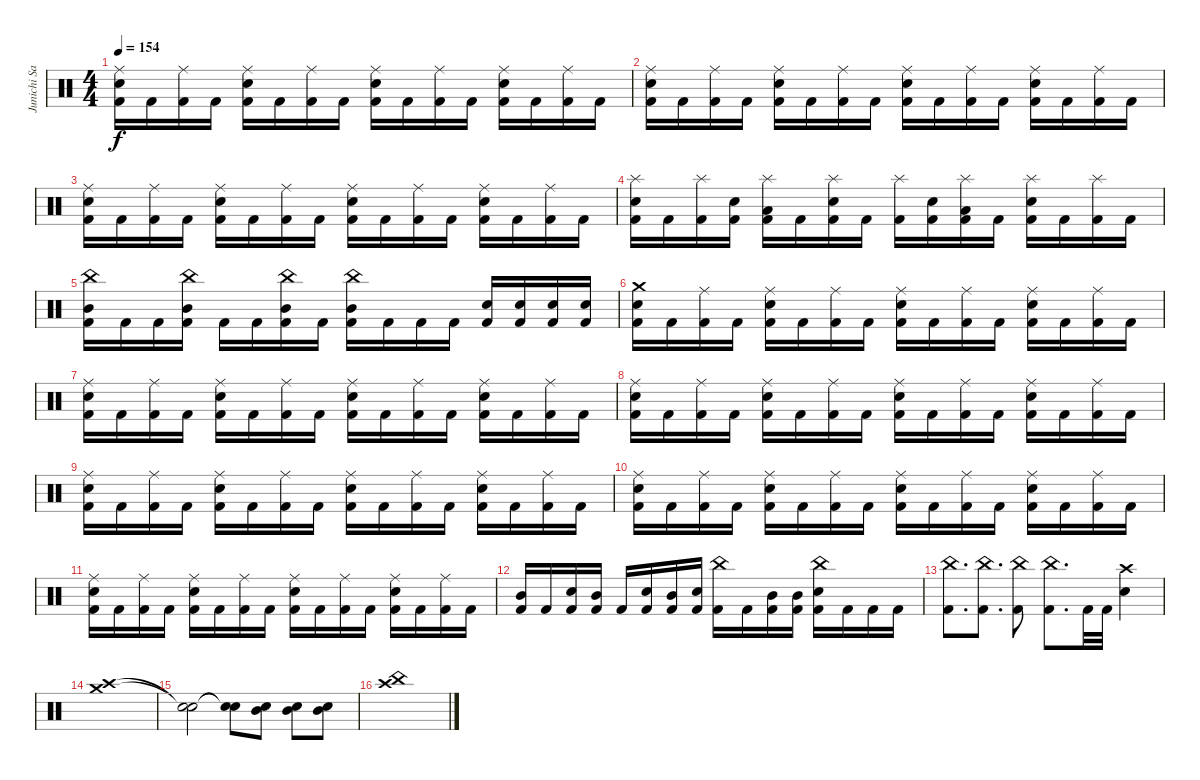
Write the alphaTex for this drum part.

\track ("Junichi Sato" "Junichi Sa") {instrument percussion}
\staff {score}
\articulation defaults
\ts (4 4)
\tempo 154
\clef neutral
\ks c
("Kick (hit) 2" "Ride (middle)" "Electric Snare (hit)").16{dy f} "Kick (hit) 2".16 ("Kick (hit) 2" "Ride (middle)").16 "Kick (hit) 2".16 ("Kick (hit) 2" "Ride (middle)" "Electric Snare (hit)").16 "Kick (hit) 2".16 ("Kick (hit) 2" "Ride (middle)").16 "Kick (hit) 2".16 ("Kick (hit) 2" "Ride (middle)" "Electric Snare (hit)").16 "Kick (hit) 2".16 ("Kick (hit) 2" "Ride (middle)").16 "Kick (hit) 2".16 ("Kick (hit) 2" "Ride (middle)" "Electric Snare (hit)").16 "Kick (hit) 2".16 ("Kick (hit) 2" "Ride (middle)").16 "Kick (hit) 2".16 |
("Kick (hit) 2" "Ride (middle)" "Electric Snare (hit)").16 "Kick (hit) 2".16 ("Kick (hit) 2" "Ride (middle)").16 "Kick (hit) 2".16 ("Kick (hit) 2" "Ride (middle)" "Electric Snare (hit)").16 "Kick (hit) 2".16 ("Kick (hit) 2" "Ride (middle)").16 "Kick (hit) 2".16 ("Kick (hit) 2" "Ride (middle)" "Electric Snare (hit)").16 "Kick (hit) 2".16 ("Kick (hit) 2" "Ride (middle)").16 "Kick (hit) 2".16 ("Kick (hit) 2" "Ride (middle)" "Electric Snare (hit)").16 "Kick (hit) 2".16 ("Kick (hit) 2" "Ride (middle)").16 "Kick (hit) 2".16 |
("Kick (hit) 2" "Ride (middle)" "Electric Snare (hit)").16 "Kick (hit) 2".16 ("Kick (hit) 2" "Ride (middle)").16 "Kick (hit) 2".16 ("Kick (hit) 2" "Ride (middle)" "Electric Snare (hit)").16 "Kick (hit) 2".16 ("Kick (hit) 2" "Ride (middle)").16 "Kick (hit) 2".16 ("Kick (hit) 2" "Ride (middle)" "Electric Snare (hit)").16 "Kick (hit) 2".16 ("Kick (hit) 2" "Ride (middle)").16 "Kick (hit) 2".16 ("Kick (hit) 2" "Ride (middle)" "Electric Snare (hit)").16 "Kick (hit) 2".16 ("Kick (hit) 2" "Ride (middle)").16 "Kick (hit) 2".16 |
("Kick (hit) 2" "Electric Snare (hit)" "Splash (hit)").16 "Kick (hit) 2".16 ("Kick (hit) 2" "Splash (hit)").16 ("Kick (hit) 2" "Electric Snare (hit)").16 ("Kick (hit) 2" "Low Tom (hit)" "Splash (hit)").16 "Kick (hit) 2".16 ("Kick (hit) 2" "Electric Snare (hit)" "Splash (hit)").16 "Kick (hit) 2".16 ("Kick (hit) 2" "Splash (hit)").16 ("Kick (hit) 2" "Electric Snare (hit)").16 ("Kick (hit) 2" "Low Tom (hit)" "Splash (hit)").16 "Kick (hit) 2".16 ("Kick (hit) 2" "Electric Snare (hit)" "Splash (hit)").16 "Kick (hit) 2".16 ("Kick (hit) 2" "Splash (hit)").16 "Kick (hit) 2".16 |
("Kick (hit) 2" "Mid Tom (hit)" "China (hit)").16 "Kick (hit) 2".16 "Kick (hit) 2".16 ("Kick (hit) 2" "Mid Tom (hit)" "China (hit)").16 "Kick (hit) 2".16 "Kick (hit) 2".16 ("Kick (hit) 2" "Mid Tom (hit)" "China (hit)").16 "Kick (hit) 2".16 ("Kick (hit) 2" "Mid Tom (hit)" "China (hit)").16 "Kick (hit) 2".16 "Kick (hit) 2".16 "Kick (hit) 2".16 ("Kick (hit) 2" "Electric Snare (hit)").16 ("Kick (hit) 2" "Electric Snare (hit)").16 ("Kick (hit) 2" "Electric Snare (hit)").16 ("Kick (hit) 2" "Electric Snare (hit)").16 |
("Kick (hit) 2" "Crash medium (hit)" "Electric Snare (hit)").16 "Kick (hit) 2".16 ("Kick (hit) 2" "Ride (middle)").16 "Kick (hit) 2".16 ("Kick (hit) 2" "Ride (middle)" "Electric Snare (hit)").16 "Kick (hit) 2".16 ("Kick (hit) 2" "Ride (middle)").16 "Kick (hit) 2".16 ("Kick (hit) 2" "Ride (middle)" "Electric Snare (hit)").16 "Kick (hit) 2".16 ("Kick (hit) 2" "Ride (middle)").16 "Kick (hit) 2".16 ("Kick (hit) 2" "Ride (middle)" "Electric Snare (hit)").16 "Kick (hit) 2".16 ("Kick (hit) 2" "Ride (middle)").16 "Kick (hit) 2".16 |
("Kick (hit) 2" "Ride (middle)" "Electric Snare (hit)").16 "Kick (hit) 2".16 ("Kick (hit) 2" "Ride (middle)").16 "Kick (hit) 2".16 ("Kick (hit) 2" "Ride (middle)" "Electric Snare (hit)").16 "Kick (hit) 2".16 ("Kick (hit) 2" "Ride (middle)").16 "Kick (hit) 2".16 ("Kick (hit) 2" "Ride (middle)" "Electric Snare (hit)").16 "Kick (hit) 2".16 ("Kick (hit) 2" "Ride (middle)").16 "Kick (hit) 2".16 ("Kick (hit) 2" "Ride (middle)" "Electric Snare (hit)").16 "Kick (hit) 2".16 ("Kick (hit) 2" "Ride (middle)").16 "Kick (hit) 2".16 |
("Kick (hit) 2" "Ride (middle)" "Electric Snare (hit)").16 "Kick (hit) 2".16 ("Kick (hit) 2" "Ride (middle)").16 "Kick (hit) 2".16 ("Kick (hit) 2" "Ride (middle)" "Electric Snare (hit)").16 "Kick (hit) 2".16 ("Kick (hit) 2" "Ride (middle)").16 "Kick (hit) 2".16 ("Kick (hit) 2" "Ride (middle)" "Electric Snare (hit)").16 "Kick (hit) 2".16 ("Kick (hit) 2" "Ride (middle)").16 "Kick (hit) 2".16 ("Kick (hit) 2" "Ride (middle)" "Electric Snare (hit)").16 "Kick (hit) 2".16 ("Kick (hit) 2" "Ride (middle)").16 "Kick (hit) 2".16 |
("Kick (hit) 2" "Ride (middle)" "Electric Snare (hit)").16 "Kick (hit) 2".16 ("Kick (hit) 2" "Ride (middle)").16 "Kick (hit) 2".16 ("Kick (hit) 2" "Ride (middle)" "Electric Snare (hit)").16 "Kick (hit) 2".16 ("Kick (hit) 2" "Ride (middle)").16 "Kick (hit) 2".16 ("Kick (hit) 2" "Ride (middle)" "Electric Snare (hit)").16 "Kick (hit) 2".16 ("Kick (hit) 2" "Ride (middle)").16 "Kick (hit) 2".16 ("Kick (hit) 2" "Ride (middle)" "Electric Snare (hit)").16 "Kick (hit) 2".16 ("Kick (hit) 2" "Ride (middle)").16 "Kick (hit) 2".16 |
("Kick (hit) 2" "Ride (middle)" "Electric Snare (hit)").16 "Kick (hit) 2".16 ("Kick (hit) 2" "Ride (middle)").16 "Kick (hit) 2".16 ("Kick (hit) 2" "Ride (middle)" "Electric Snare (hit)").16 "Kick (hit) 2".16 ("Kick (hit) 2" "Ride (middle)").16 "Kick (hit) 2".16 ("Kick (hit) 2" "Ride (middle)" "Electric Snare (hit)").16 "Kick (hit) 2".16 ("Kick (hit) 2" "Ride (middle)").16 "Kick (hit) 2".16 ("Kick (hit) 2" "Ride (middle)" "Electric Snare (hit)").16 "Kick (hit) 2".16 ("Kick (hit) 2" "Ride (middle)").16 "Kick (hit) 2".16 |
("Kick (hit) 2" "Ride (middle)" "Electric Snare (hit)").16 "Kick (hit) 2".16 ("Kick (hit) 2" "Ride (middle)").16 "Kick (hit) 2".16 ("Kick (hit) 2" "Ride (middle)" "Electric Snare (hit)").16 "Kick (hit) 2".16 ("Kick (hit) 2" "Ride (middle)").16 "Kick (hit) 2".16 ("Kick (hit) 2" "Ride (middle)" "Electric Snare (hit)").16 "Kick (hit) 2".16 ("Kick (hit) 2" "Ride (middle)").16 "Kick (hit) 2".16 ("Kick (hit) 2" "Ride (middle)" "Electric Snare (hit)").16 "Kick (hit) 2".16 ("Kick (hit) 2" "Ride (middle)").16 "Kick (hit) 2".16 |
("Kick (hit) 2" "Mid Tom (hit)").16 "Kick (hit) 2".16 ("Kick (hit) 2" "Electric Snare (hit)").16 ("Kick (hit) 2" "Mid Tom (hit)").16 "Kick (hit) 2".16 ("Kick (hit) 2" "Electric Snare (hit)").16 ("Kick (hit) 2" "Mid Tom (hit)").16 ("Kick (hit) 2" "Electric Snare (hit)").16 ("Kick (hit) 2" "China (hit)").16 "Kick (hit) 2".16 ("Kick (hit) 2" "Mid Tom (hit)").16 ("Kick (hit) 2" "Mid Tom (hit)").16 ("Kick (hit) 2" "Electric Snare (hit)" "China (hit)").16 "Kick (hit) 2".16 "Kick (hit) 2".16 "Kick (hit) 2".16 |
("China (hit)" "Kick (hit) 2").8{d} ("China (hit)" "Kick (hit) 2").8{d} ("China (hit)" "Kick (hit) 2").8 ("China (hit)" "Kick (hit) 2").8{d} "Kick (hit) 2".32 "Kick (hit) 2".32 ("Electric Snare (hit)" "Crash high (hit)").4 |
("Crash medium (hit)" "Crash high (hit)").1 |
("Snare (hit)"{t} "Snare (hit)"{t}).2 ("Snare (hit)"{t} "Snare (hit)"{t}).8 ("Mid Tom (hit)" "Electric Snare (hit)").8 ("Mid Tom (hit)" "Electric Snare (hit)").8 ("Mid Tom (hit)" "Electric Snare (hit)").8 |
("China (hit)" "Crash high (hit)").1
